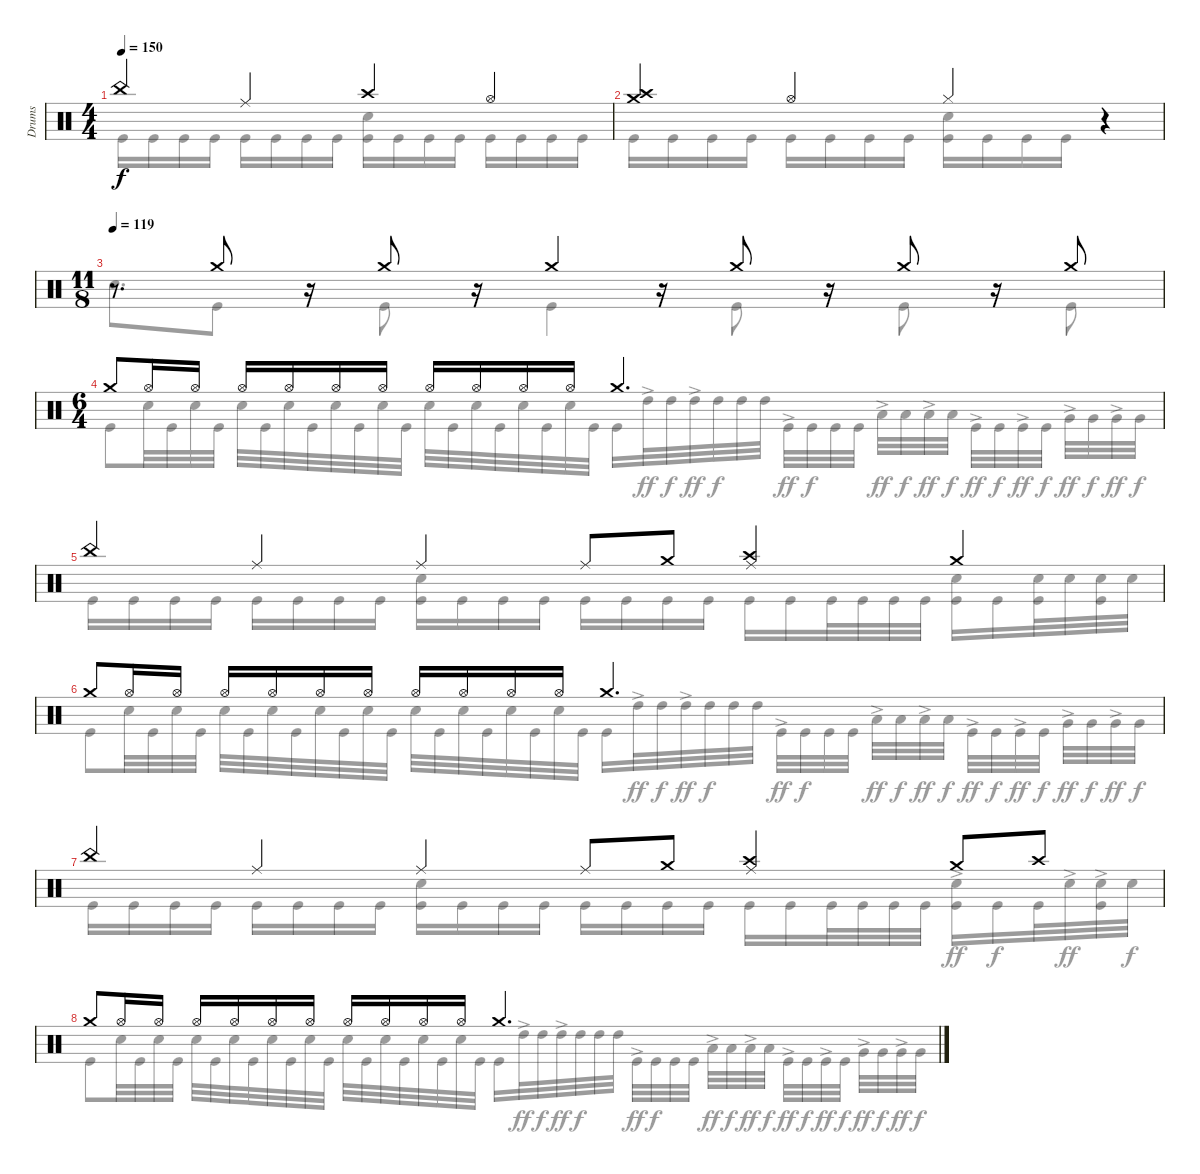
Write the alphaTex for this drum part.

\track ("Drums" "Drums") {instrument percussion}
\staff {score}
\articulation defaults
\voice
\ts (4 4)
\tempo 150
\clef neutral
\ks c "China (hit)".4{dy f} "Ride (middle)".4 "Crash high (hit)".4 "Hi-Hat (open)".4
|
("Crash medium (hit)" "Crash high (hit)").4 "Hi-Hat (open)".4 "Hi-Hat (closed)".4 r.4 |
\ts (11 8)
\tempo 119
r.8{d} "Crash medium (hit)".8 r.16 "Crash medium (hit)".8 r.16 "Crash medium (hit)".4 r.16 "Crash medium (hit)".8 r.16 "Crash medium (hit)".8 r.16 "Crash medium (hit)".8 |
\ts (6 4)
"Crash medium (hit)".8 "Hi-Hat (open)".16 "Hi-Hat (open)".16 "Hi-Hat (open)".16 "Hi-Hat (open)".16 "Hi-Hat (open)".16 "Hi-Hat (open)".16 "Hi-Hat (open)".16 "Hi-Hat (open)".16 "Hi-Hat (open)".16 "Hi-Hat (open)".16 "Crash medium (hit)".2{d} |
"China (hit)".4 "Ride (middle)".4 "Ride (middle)".4 "Ride (middle)".8 "Crash medium (hit)".8 ("Ride (middle)" "Crash high (hit)").4 "Crash medium (hit)".4 |
"Crash medium (hit)".8 "Hi-Hat (open)".16 "Hi-Hat (open)".16 "Hi-Hat (open)".16 "Hi-Hat (open)".16 "Hi-Hat (open)".16 "Hi-Hat (open)".16 "Hi-Hat (open)".16 "Hi-Hat (open)".16 "Hi-Hat (open)".16 "Hi-Hat (open)".16 "Crash medium (hit)".2{d} |
"China (hit)".4 "Ride (middle)".4 "Ride (middle)".4 "Ride (middle)".8 "Crash medium (hit)".8 ("Ride (middle)" "Crash high (hit)").4 "Crash medium (hit)".8 "Crash high (hit)".8 |
"Crash medium (hit)".8 "Hi-Hat (open)".16 "Hi-Hat (open)".16 "Hi-Hat (open)".16 "Hi-Hat (open)".16 "Hi-Hat (open)".16 "Hi-Hat (open)".16 "Hi-Hat (open)".16 "Hi-Hat (open)".16 "Hi-Hat (open)".16 "Hi-Hat (open)".16 "Crash medium (hit)".2{d}
\voice
\clef neutral
\ottava regular
\simile none
\ks c "Kick (hit)".16{dy f} "Kick (hit)".16 "Kick (hit)".16 "Kick (hit)".16 "Kick (hit)".16 "Kick (hit)".16 "Kick (hit)".16 "Kick (hit)".16
("Snare (hit) 2" "Kick (hit)").16 "Kick (hit)".16 "Kick (hit)".16 "Kick (hit)".16 "Kick (hit)".16 "Kick (hit)".16 "Kick (hit)".16 "Kick (hit)".16 |
"Kick (hit)".16 "Kick (hit)".16 "Kick (hit)".16 "Kick (hit)".16 "Kick (hit)".16 "Kick (hit)".16 "Kick (hit)".16 "Kick (hit)".16 ("Snare (hit) 2" "Kick (hit)").16 "Kick (hit)".16 "Kick (hit)".16 "Kick (hit)".16 r.4 |
"Snare (hit) 2".8{d} "Kick (hit)".8 r.16 "Kick (hit)".8 r.16 "Kick (hit)".4 r.16 "Kick (hit)".8 r.16 "Kick (hit)".8 r.16 "Kick (hit)".8 |
"Kick (hit)".8 "Snare (hit) 2".32 "Kick (hit)".32 "Snare (hit) 2".32 "Kick (hit)".32 "Snare (hit) 2".32 "Kick (hit)".32 "Snare (hit) 2".32 "Kick (hit)".32 "Snare (hit) 2".32 "Kick (hit)".32 "Snare (hit) 2".32 "Kick (hit)".32 "Snare (hit) 2".32 "Kick (hit)".32 "Snare (hit) 2".32 "Kick (hit)".32 "Snare (hit) 2".32 "Kick (hit)".32 "Snare (hit) 2".32 "Kick (hit)".32 "Kick (hit)".16 "High Tom (hit)"{ac}.32{dy ff} "High Tom (hit)".32{dy f} "High Tom (hit)"{ac}.32{dy ff} "High Tom (hit)".32{dy f} "High Tom (hit)".32 "High Tom (hit)".32{beam split} "Kick (hit)"{ac}.32{dy ff} "Kick (hit)".32{dy f} "Kick (hit)".32 "Kick (hit)".32{beam split} "Low Tom (hit)"{ac}.32{dy ff} "Low Tom (hit)".32{dy f} "Low Tom (hit)"{ac}.32{dy ff} "Low Tom (hit)".32{dy f beam split} "Kick (hit)"{ac}.32{dy ff} "Kick (hit)".32{dy f} "Kick (hit)"{ac}.32{dy ff} "Kick (hit)".32{dy f beam split} "Very Low Tom (hit)"{ac}.32{dy ff} "Very Low Tom (hit)".32{dy f} "Very Low Tom (hit)"{ac}.32{dy ff} "Very Low Tom (hit)".32{dy f} |
"Kick (hit)".16 "Kick (hit)".16 "Kick (hit)".16 "Kick (hit)".16{beam split} "Kick (hit)".16 "Kick (hit)".16 "Kick (hit)".16 "Kick (hit)".16{beam split} ("Snare (hit) 2" "Kick (hit)").16 "Kick (hit)".16 "Kick (hit)".16 "Kick (hit)".16 "Kick (hit)".16 "Kick (hit)".16 "Kick (hit)".16 "Kick (hit)".16{beam split} "Kick (hit)".16 "Kick (hit)".16 "Kick (hit)".32 "Kick (hit)".32 "Kick (hit)".32 "Kick (hit)".32{beam split} ("Snare (hit) 2" "Kick (hit)").16 "Kick (hit)".16 ("Snare (hit) 2" "Kick (hit)").32 "Snare (hit) 2".32 ("Snare (hit) 2" "Kick (hit)").32 "Snare (hit) 2".32 |
"Kick (hit)".8 "Snare (hit) 2".32 "Kick (hit)".32 "Snare (hit) 2".32 "Kick (hit)".32 "Snare (hit) 2".32 "Kick (hit)".32 "Snare (hit) 2".32 "Kick (hit)".32 "Snare (hit) 2".32 "Kick (hit)".32 "Snare (hit) 2".32 "Kick (hit)".32 "Snare (hit) 2".32 "Kick (hit)".32 "Snare (hit) 2".32 "Kick (hit)".32 "Snare (hit) 2".32 "Kick (hit)".32 "Snare (hit) 2".32 "Kick (hit)".32 "Kick (hit)".16 "High Tom (hit)"{ac}.32{dy ff} "High Tom (hit)".32{dy f} "High Tom (hit)"{ac}.32{dy ff} "High Tom (hit)".32{dy f} "High Tom (hit)".32 "High Tom (hit)".32{beam split} "Kick (hit)"{ac}.32{dy ff} "Kick (hit)".32{dy f} "Kick (hit)".32 "Kick (hit)".32{beam split} "Low Tom (hit)"{ac}.32{dy ff} "Low Tom (hit)".32{dy f} "Low Tom (hit)"{ac}.32{dy ff} "Low Tom (hit)".32{dy f beam split} "Kick (hit)"{ac}.32{dy ff} "Kick (hit)".32{dy f} "Kick (hit)"{ac}.32{dy ff} "Kick (hit)".32{dy f beam split} "Very Low Tom (hit)"{ac}.32{dy ff} "Very Low Tom (hit)".32{dy f} "Very Low Tom (hit)"{ac}.32{dy ff} "Very Low Tom (hit)".32{dy f} |
"Kick (hit)".16 "Kick (hit)".16 "Kick (hit)".16 "Kick (hit)".16{beam split} "Kick (hit)".16 "Kick (hit)".16 "Kick (hit)".16 "Kick (hit)".16{beam split} ("Snare (hit) 2" "Kick (hit)").16 "Kick (hit)".16 "Kick (hit)".16 "Kick (hit)".16 "Kick (hit)".16 "Kick (hit)".16 "Kick (hit)".16 "Kick (hit)".16{beam split} "Kick (hit)".16 "Kick (hit)".16 "Kick (hit)".32 "Kick (hit)".32 "Kick (hit)".32 "Kick (hit)".32 ("Snare (hit) 2"{ac} "Kick (hit)").16{dy ff} "Kick (hit)".16{dy f} "Kick (hit)".32 "Snare (hit) 2"{ac}.32{dy ff} ("Snare (hit) 2"{ac} "Kick (hit)").32 "Snare (hit) 2".32{dy f} |
"Kick (hit)".8 "Snare (hit) 2".32 "Kick (hit)".32 "Snare (hit) 2".32 "Kick (hit)".32 "Snare (hit) 2".32 "Kick (hit)".32 "Snare (hit) 2".32 "Kick (hit)".32 "Snare (hit) 2".32 "Kick (hit)".32 "Snare (hit) 2".32 "Kick (hit)".32 "Snare (hit) 2".32 "Kick (hit)".32 "Snare (hit) 2".32 "Kick (hit)".32 "Snare (hit) 2".32 "Kick (hit)".32 "Snare (hit) 2".32 "Kick (hit)".32 "Kick (hit)".16 "High Tom (hit)"{ac}.32{dy ff} "High Tom (hit)".32{dy f} "High Tom (hit)"{ac}.32{dy ff} "High Tom (hit)".32{dy f} "High Tom (hit)".32 "High Tom (hit)".32{beam split} "Kick (hit)"{ac}.32{dy ff} "Kick (hit)".32{dy f} "Kick (hit)".32 "Kick (hit)".32{beam split} "Low Tom (hit)"{ac}.32{dy ff} "Low Tom (hit)".32{dy f} "Low Tom (hit)"{ac}.32{dy ff} "Low Tom (hit)".32{dy f beam split} "Kick (hit)"{ac}.32{dy ff} "Kick (hit)".32{dy f} "Kick (hit)"{ac}.32{dy ff} "Kick (hit)".32{dy f beam split} "Very Low Tom (hit)"{ac}.32{dy ff} "Very Low Tom (hit)".32{dy f} "Very Low Tom (hit)"{ac}.32{dy ff} "Very Low Tom (hit)".32{dy f}
